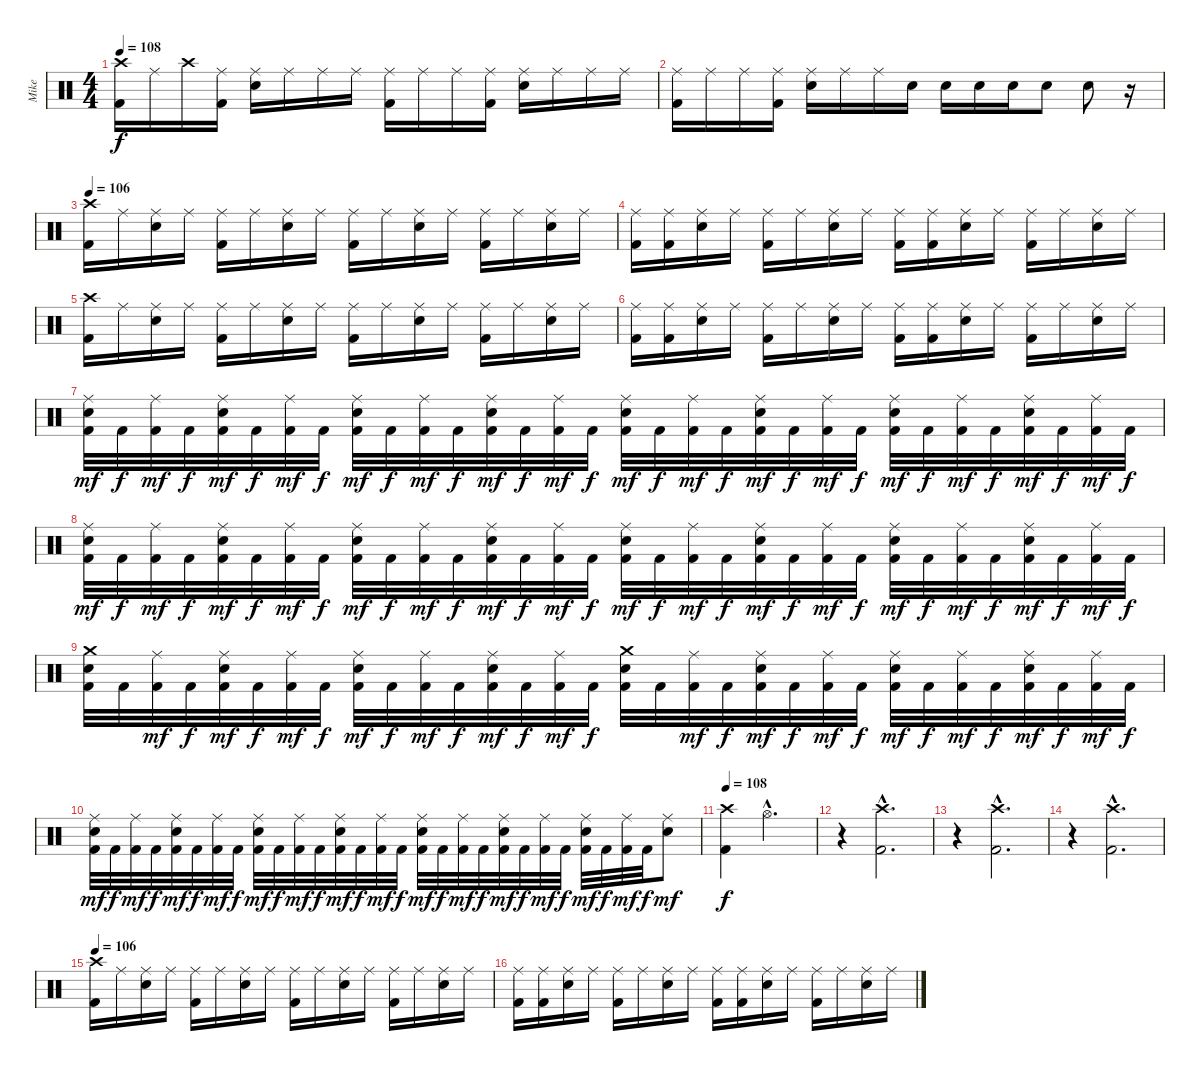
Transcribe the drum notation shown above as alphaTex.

\track ("Mike" "Mike") {instrument percussion}
\staff {score}
\articulation defaults
\ts (4 4)
\tempo 108
\clef neutral
\ks c
("Crash high (hit)" "Kick (hit) 2").16{dy f} "Ride (middle)".16 "Crash high (hit)".16 ("Ride (middle)" "Kick (hit) 2").16 ("Ride (middle)" "Snare (hit) 2").16 "Ride (middle)".16 "Ride (middle)".16 "Ride (middle)".16 ("Ride (middle)" "Kick (hit) 2").16 "Ride (middle)".16 "Ride (middle)".16 ("Ride (middle)" "Kick (hit) 2").16 ("Ride (middle)" "Snare (hit) 2").16 "Ride (middle)".16 "Ride (middle)".16 "Ride (middle)".16 |
("Ride (middle)" "Kick (hit) 2").16 "Ride (middle)".16 "Ride (middle)".16 ("Ride (middle)" "Kick (hit) 2").16 ("Ride (middle)" "Snare (hit) 2").16 "Ride (middle)".16 "Ride (middle)".16 "Snare (hit) 2".16 "Snare (hit) 2".16 "Snare (hit) 2".16 "Snare (hit) 2".16 "Snare (hit) 2".8 "Snare (hit) 2".8 r.16 |
\tempo 106
("Crash high (hit)" "Kick (hit) 2").16 "Ride (middle)".16 ("Ride (middle)" "Snare (hit) 2").16 "Ride (middle)".16 ("Ride (middle)" "Kick (hit) 2").16 "Ride (middle)".16 ("Ride (middle)" "Snare (hit) 2").16 "Ride (middle)".16 ("Ride (middle)" "Kick (hit) 2").16 "Ride (middle)".16 ("Ride (middle)" "Snare (hit) 2").16 "Ride (middle)".16 ("Ride (middle)" "Kick (hit) 2").16 "Ride (middle)".16 ("Ride (middle)" "Snare (hit) 2").16 "Ride (middle)".16 |
("Ride (middle)" "Kick (hit) 2").16 ("Ride (middle)" "Kick (hit) 2").16 ("Ride (middle)" "Snare (hit) 2").16 "Ride (middle)".16 ("Ride (middle)" "Kick (hit) 2").16 "Ride (middle)".16 ("Ride (middle)" "Snare (hit) 2").16 "Ride (middle)".16 ("Ride (middle)" "Kick (hit) 2").16 ("Ride (middle)" "Kick (hit) 2").16 ("Ride (middle)" "Snare (hit) 2").16 "Ride (middle)".16 ("Ride (middle)" "Kick (hit) 2").16 "Ride (middle)".16 ("Ride (middle)" "Snare (hit) 2").16 "Ride (middle)".16 |
("Crash high (hit)" "Kick (hit) 2").16 "Ride (middle)".16 ("Ride (middle)" "Snare (hit) 2").16 "Ride (middle)".16 ("Ride (middle)" "Kick (hit) 2").16 "Ride (middle)".16 ("Ride (middle)" "Snare (hit) 2").16 "Ride (middle)".16 ("Ride (middle)" "Kick (hit) 2").16 "Ride (middle)".16 ("Ride (middle)" "Snare (hit) 2").16 "Ride (middle)".16 ("Ride (middle)" "Kick (hit) 2").16 "Ride (middle)".16 ("Ride (middle)" "Snare (hit) 2").16 "Ride (middle)".16 |
("Ride (middle)" "Kick (hit) 2").16 ("Ride (middle)" "Kick (hit) 2").16 ("Ride (middle)" "Snare (hit) 2").16 "Ride (middle)".16 ("Ride (middle)" "Kick (hit) 2").16 "Ride (middle)".16 ("Ride (middle)" "Snare (hit) 2").16 "Ride (middle)".16 ("Ride (middle)" "Kick (hit) 2").16 ("Ride (middle)" "Kick (hit) 2").16 ("Ride (middle)" "Snare (hit) 2").16 "Ride (middle)".16 ("Ride (middle)" "Kick (hit) 2").16 "Ride (middle)".16 ("Ride (middle)" "Snare (hit) 2").16 "Ride (middle)".16 |
("Ride (middle)" "Snare (hit) 2" "Kick (hit) 2").32{dy mf} "Kick (hit) 2".32{dy f} ("Ride (middle)" "Kick (hit) 2").32{dy mf} "Kick (hit) 2".32{dy f} ("Ride (middle)" "Snare (hit) 2" "Kick (hit) 2").32{dy mf} "Kick (hit) 2".32{dy f} ("Ride (middle)" "Kick (hit) 2").32{dy mf} "Kick (hit) 2".32{dy f} ("Ride (middle)" "Snare (hit) 2" "Kick (hit) 2").32{dy mf} "Kick (hit) 2".32{dy f} ("Ride (middle)" "Kick (hit) 2").32{dy mf} "Kick (hit) 2".32{dy f} ("Ride (middle)" "Snare (hit) 2" "Kick (hit) 2").32{dy mf} "Kick (hit) 2".32{dy f} ("Ride (middle)" "Kick (hit) 2").32{dy mf} "Kick (hit) 2".32{dy f} ("Ride (middle)" "Snare (hit) 2" "Kick (hit) 2").32{dy mf} "Kick (hit) 2".32{dy f} ("Ride (middle)" "Kick (hit) 2").32{dy mf} "Kick (hit) 2".32{dy f} ("Ride (middle)" "Snare (hit) 2" "Kick (hit) 2").32{dy mf} "Kick (hit) 2".32{dy f} ("Ride (middle)" "Kick (hit) 2").32{dy mf} "Kick (hit) 2".32{dy f} ("Ride (middle)" "Snare (hit) 2" "Kick (hit) 2").32{dy mf} "Kick (hit) 2".32{dy f} ("Ride (middle)" "Kick (hit) 2").32{dy mf} "Kick (hit) 2".32{dy f} ("Ride (middle)" "Snare (hit) 2" "Kick (hit) 2").32{dy mf} "Kick (hit) 2".32{dy f} ("Ride (middle)" "Kick (hit) 2").32{dy mf} "Kick (hit) 2".32{dy f} |
("Ride (middle)" "Snare (hit) 2" "Kick (hit) 2").32{dy mf} "Kick (hit) 2".32{dy f} ("Ride (middle)" "Kick (hit) 2").32{dy mf} "Kick (hit) 2".32{dy f} ("Ride (middle)" "Snare (hit) 2" "Kick (hit) 2").32{dy mf} "Kick (hit) 2".32{dy f} ("Ride (middle)" "Kick (hit) 2").32{dy mf} "Kick (hit) 2".32{dy f} ("Ride (middle)" "Snare (hit) 2" "Kick (hit) 2").32{dy mf} "Kick (hit) 2".32{dy f} ("Ride (middle)" "Kick (hit) 2").32{dy mf} "Kick (hit) 2".32{dy f} ("Ride (middle)" "Snare (hit) 2" "Kick (hit) 2").32{dy mf} "Kick (hit) 2".32{dy f} ("Ride (middle)" "Kick (hit) 2").32{dy mf} "Kick (hit) 2".32{dy f} ("Ride (middle)" "Snare (hit) 2" "Kick (hit) 2").32{dy mf} "Kick (hit) 2".32{dy f} ("Ride (middle)" "Kick (hit) 2").32{dy mf} "Kick (hit) 2".32{dy f} ("Ride (middle)" "Snare (hit) 2" "Kick (hit) 2").32{dy mf} "Kick (hit) 2".32{dy f} ("Ride (middle)" "Kick (hit) 2").32{dy mf} "Kick (hit) 2".32{dy f} ("Ride (middle)" "Snare (hit) 2" "Kick (hit) 2").32{dy mf} "Kick (hit) 2".32{dy f} ("Ride (middle)" "Kick (hit) 2").32{dy mf} "Kick (hit) 2".32{dy f} ("Ride (middle)" "Snare (hit) 2" "Kick (hit) 2").32{dy mf} "Kick (hit) 2".32{dy f} ("Ride (middle)" "Kick (hit) 2").32{dy mf} "Kick (hit) 2".32{dy f} |
("Crash medium (hit)" "Snare (hit) 2" "Kick (hit) 2").32 "Kick (hit) 2".32 ("Ride (middle)" "Kick (hit) 2").32{dy mf} "Kick (hit) 2".32{dy f} ("Ride (middle)" "Snare (hit) 2" "Kick (hit) 2").32{dy mf} "Kick (hit) 2".32{dy f} ("Ride (middle)" "Kick (hit) 2").32{dy mf} "Kick (hit) 2".32{dy f} ("Ride (middle)" "Snare (hit) 2" "Kick (hit) 2").32{dy mf} "Kick (hit) 2".32{dy f} ("Ride (middle)" "Kick (hit) 2").32{dy mf} "Kick (hit) 2".32{dy f} ("Ride (middle)" "Snare (hit) 2" "Kick (hit) 2").32{dy mf} "Kick (hit) 2".32{dy f} ("Ride (middle)" "Kick (hit) 2").32{dy mf} "Kick (hit) 2".32{dy f} ("Crash medium (hit)" "Snare (hit) 2" "Kick (hit) 2").32 "Kick (hit) 2".32 ("Ride (middle)" "Kick (hit) 2").32{dy mf} "Kick (hit) 2".32{dy f} ("Ride (middle)" "Snare (hit) 2" "Kick (hit) 2").32{dy mf} "Kick (hit) 2".32{dy f} ("Ride (middle)" "Kick (hit) 2").32{dy mf} "Kick (hit) 2".32{dy f} ("Ride (middle)" "Snare (hit) 2" "Kick (hit) 2").32{dy mf} "Kick (hit) 2".32{dy f} ("Ride (middle)" "Kick (hit) 2").32{dy mf} "Kick (hit) 2".32{dy f} ("Ride (middle)" "Snare (hit) 2" "Kick (hit) 2").32{dy mf} "Kick (hit) 2".32{dy f} ("Ride (middle)" "Kick (hit) 2").32{dy mf} "Kick (hit) 2".32{dy f} |
("Ride (middle)" "Snare (hit) 2" "Kick (hit) 2").32{dy mf} "Kick (hit) 2".32{dy f} ("Ride (middle)" "Kick (hit) 2").32{dy mf} "Kick (hit) 2".32{dy f} ("Ride (middle)" "Snare (hit) 2" "Kick (hit) 2").32{dy mf} "Kick (hit) 2".32{dy f} ("Ride (middle)" "Kick (hit) 2").32{dy mf} "Kick (hit) 2".32{dy f} ("Ride (middle)" "Snare (hit) 2" "Kick (hit) 2").32{dy mf} "Kick (hit) 2".32{dy f} ("Ride (middle)" "Kick (hit) 2").32{dy mf} "Kick (hit) 2".32{dy f} ("Ride (middle)" "Snare (hit) 2" "Kick (hit) 2").32{dy mf} "Kick (hit) 2".32{dy f} ("Ride (middle)" "Kick (hit) 2").32{dy mf} "Kick (hit) 2".32{dy f} ("Ride (middle)" "Snare (hit) 2" "Kick (hit) 2").32{dy mf} "Kick (hit) 2".32{dy f} ("Ride (middle)" "Kick (hit) 2").32{dy mf} "Kick (hit) 2".32{dy f} ("Ride (middle)" "Snare (hit) 2" "Kick (hit) 2").32{dy mf} "Kick (hit) 2".32{dy f} ("Ride (middle)" "Kick (hit) 2").32{dy mf} "Kick (hit) 2".32{dy f} ("Ride (middle)" "Snare (hit) 2" "Kick (hit) 2").32{dy mf} "Kick (hit) 2".32{dy f} ("Ride (middle)" "Kick (hit) 2").32{dy mf} "Kick (hit) 2".32{dy f} ("Ride (middle)" "Snare (hit) 2").8{dy mf} |
\tempo 108
("Crash high (hit)" "Kick (hit) 2").4{dy f} "Hi-Hat (open)"{hac}.2{d} |
r.4 ("Crash high (hit)"{hac} "Kick (hit) 2"{hac}).2{d} |
r.4 ("Crash high (hit)"{hac} "Kick (hit) 2"{hac}).2{d} |
r.4 ("Crash high (hit)"{hac} "Kick (hit) 2"{hac}).2{d} |
\tempo 106
("Crash high (hit)" "Kick (hit) 2").16 "Ride (middle)".16 ("Ride (middle)" "Snare (hit) 2").16 "Ride (middle)".16 ("Ride (middle)" "Kick (hit) 2").16 "Ride (middle)".16 ("Ride (middle)" "Snare (hit) 2").16 "Ride (middle)".16 ("Ride (middle)" "Kick (hit) 2").16 "Ride (middle)".16 ("Ride (middle)" "Snare (hit) 2").16 "Ride (middle)".16 ("Ride (middle)" "Kick (hit) 2").16 "Ride (middle)".16 ("Ride (middle)" "Snare (hit) 2").16 "Ride (middle)".16 |
("Ride (middle)" "Kick (hit) 2").16 ("Ride (middle)" "Kick (hit) 2").16 ("Ride (middle)" "Snare (hit) 2").16 "Ride (middle)".16 ("Ride (middle)" "Kick (hit) 2").16 "Ride (middle)".16 ("Ride (middle)" "Snare (hit) 2").16 "Ride (middle)".16 ("Ride (middle)" "Kick (hit) 2").16 ("Ride (middle)" "Kick (hit) 2").16 ("Ride (middle)" "Snare (hit) 2").16 "Ride (middle)".16 ("Ride (middle)" "Kick (hit) 2").16 "Ride (middle)".16 ("Ride (middle)" "Snare (hit) 2").16 "Ride (middle)".16
